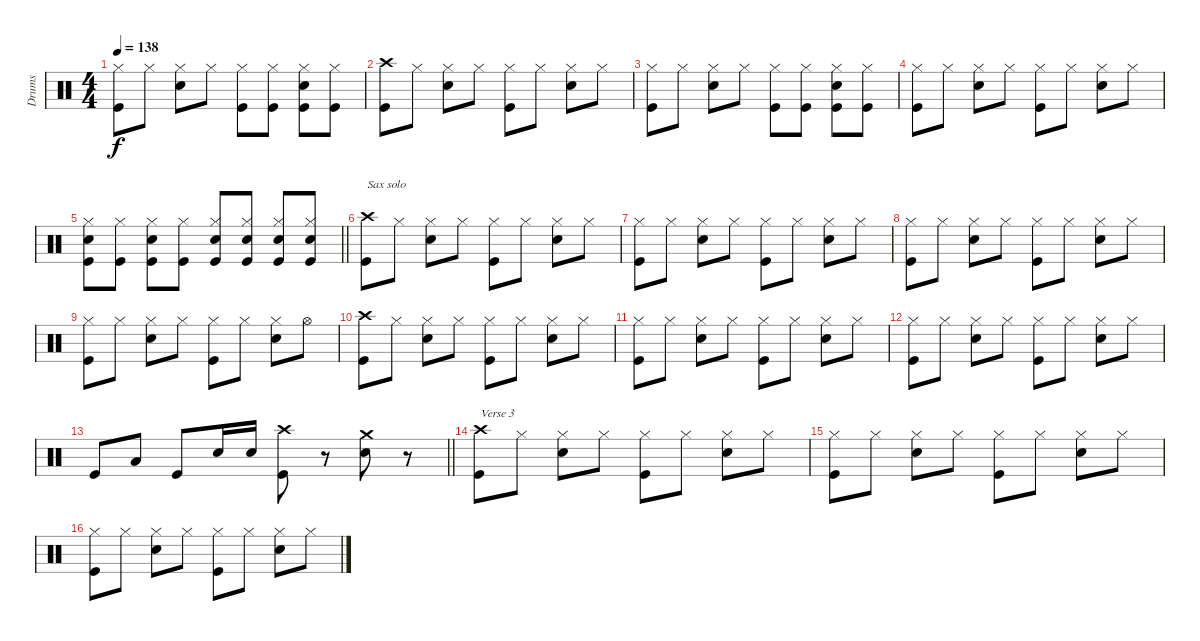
\track ("Drums" "Drums") {instrument percussion}
\staff {score}
\articulation defaults
\ts (4 4)
\tempo 138
\clef neutral
\ks c
("Kick (hit)" "Hi-Hat (closed)").8{dy f} "Hi-Hat (closed)".8 ("Electric Snare (hit)" "Hi-Hat (closed)").8 "Hi-Hat (closed)".8 ("Kick (hit)" "Hi-Hat (closed)").8 ("Kick (hit)" "Hi-Hat (closed)").8 ("Kick (hit)" "Electric Snare (hit)" "Hi-Hat (closed)").8 ("Kick (hit)" "Hi-Hat (closed)").8 |
("Kick (hit)" "Crash high (hit)").8 "Hi-Hat (closed)".8 ("Electric Snare (hit)" "Hi-Hat (closed)").8 "Hi-Hat (closed)".8 ("Kick (hit)" "Hi-Hat (closed)").8 "Hi-Hat (closed)".8 ("Electric Snare (hit)" "Hi-Hat (closed)").8 "Hi-Hat (closed)".8 |
("Kick (hit)" "Hi-Hat (closed)").8 "Hi-Hat (closed)".8 ("Electric Snare (hit)" "Hi-Hat (closed)").8 "Hi-Hat (closed)".8 ("Kick (hit)" "Hi-Hat (closed)").8 ("Kick (hit)" "Hi-Hat (closed)").8 ("Kick (hit)" "Electric Snare (hit)" "Hi-Hat (closed)").8 ("Kick (hit)" "Hi-Hat (closed)").8 |
("Kick (hit)" "Hi-Hat (closed)").8 "Hi-Hat (closed)".8 ("Electric Snare (hit)" "Hi-Hat (closed)").8 "Hi-Hat (closed)".8 ("Kick (hit)" "Hi-Hat (closed)").8 "Hi-Hat (closed)".8 ("Electric Snare (hit)" "Hi-Hat (closed)").8 "Hi-Hat (closed)".8 |
\barLineRight lightlight
("Kick (hit)" "Electric Snare (hit)" "Hi-Hat (closed)").8 ("Kick (hit)" "Hi-Hat (closed)").8 ("Kick (hit)" "Electric Snare (hit)" "Hi-Hat (closed)").8 ("Kick (hit)" "Hi-Hat (closed)").8 ("Kick (hit)" "Electric Snare (hit)" "Hi-Hat (closed)").8 ("Kick (hit)" "Electric Snare (hit)" "Hi-Hat (closed)").8 ("Kick (hit)" "Electric Snare (hit)" "Hi-Hat (closed)").8 ("Kick (hit)" "Electric Snare (hit)" "Hi-Hat (closed)").8 |
("Kick (hit)" "Crash high (hit)").8{txt "Sax solo"} "Hi-Hat (closed)".8 ("Electric Snare (hit)" "Hi-Hat (closed)").8 "Hi-Hat (closed)".8 ("Kick (hit)" "Hi-Hat (closed)").8 "Hi-Hat (closed)".8 ("Electric Snare (hit)" "Hi-Hat (closed)").8 "Hi-Hat (closed)".8 |
("Kick (hit)" "Hi-Hat (closed)").8 "Hi-Hat (closed)".8 ("Electric Snare (hit)" "Hi-Hat (closed)").8 "Hi-Hat (closed)".8 ("Kick (hit)" "Hi-Hat (closed)").8 "Hi-Hat (closed)".8 ("Electric Snare (hit)" "Hi-Hat (closed)").8 "Hi-Hat (closed)".8 |
("Kick (hit)" "Hi-Hat (closed)").8 "Hi-Hat (closed)".8 ("Electric Snare (hit)" "Hi-Hat (closed)").8 "Hi-Hat (closed)".8 ("Kick (hit)" "Hi-Hat (closed)").8 "Hi-Hat (closed)".8 ("Electric Snare (hit)" "Hi-Hat (closed)").8 "Hi-Hat (closed)".8 |
("Kick (hit)" "Hi-Hat (closed)").8 "Hi-Hat (closed)".8 ("Electric Snare (hit)" "Hi-Hat (closed)").8 "Hi-Hat (closed)".8 ("Kick (hit)" "Hi-Hat (closed)").8 "Hi-Hat (closed)".8 ("Electric Snare (hit)" "Hi-Hat (closed)").8 "Hi-Hat (open)".8 |
("Kick (hit)" "Crash high (hit)").8 "Hi-Hat (closed)".8 ("Electric Snare (hit)" "Hi-Hat (closed)").8 "Hi-Hat (closed)".8 ("Kick (hit)" "Hi-Hat (closed)").8 "Hi-Hat (closed)".8 ("Electric Snare (hit)" "Hi-Hat (closed)").8 "Hi-Hat (closed)".8 |
("Kick (hit)" "Hi-Hat (closed)").8 "Hi-Hat (closed)".8 ("Electric Snare (hit)" "Hi-Hat (closed)").8 "Hi-Hat (closed)".8 ("Kick (hit)" "Hi-Hat (closed)").8 "Hi-Hat (closed)".8 ("Electric Snare (hit)" "Hi-Hat (closed)").8 "Hi-Hat (closed)".8 |
("Kick (hit)" "Hi-Hat (closed)").8 "Hi-Hat (closed)".8 ("Electric Snare (hit)" "Hi-Hat (closed)").8 "Hi-Hat (closed)".8 ("Kick (hit)" "Hi-Hat (closed)").8 "Hi-Hat (closed)".8 ("Electric Snare (hit)" "Hi-Hat (closed)").8 "Hi-Hat (closed)".8 |
\barLineRight lightlight "Kick (hit)".8 "Low Tom (hit)".8 "Kick (hit)".8 "Electric Snare (hit)".16 "Electric Snare (hit)".16
("Kick (hit)" "Crash high (hit)").8 r.8 ("Electric Snare (hit)" "Crash medium (hit)").8 r.8 |
("Kick (hit)" "Crash high (hit)").8{txt "Verse 3"} "Hi-Hat (closed)".8 ("Electric Snare (hit)" "Hi-Hat (closed)").8 "Hi-Hat (closed)".8 ("Kick (hit)" "Hi-Hat (closed)").8 "Hi-Hat (closed)".8 ("Electric Snare (hit)" "Hi-Hat (closed)").8 "Hi-Hat (closed)".8 |
("Kick (hit)" "Hi-Hat (closed)").8 "Hi-Hat (closed)".8 ("Electric Snare (hit)" "Hi-Hat (closed)").8 "Hi-Hat (closed)".8 ("Kick (hit)" "Hi-Hat (closed)").8 "Hi-Hat (closed)".8 ("Electric Snare (hit)" "Hi-Hat (closed)").8 "Hi-Hat (closed)".8 |
("Kick (hit)" "Hi-Hat (closed)").8 "Hi-Hat (closed)".8 ("Electric Snare (hit)" "Hi-Hat (closed)").8 "Hi-Hat (closed)".8 ("Kick (hit)" "Hi-Hat (closed)").8 "Hi-Hat (closed)".8 ("Electric Snare (hit)" "Hi-Hat (closed)").8 "Hi-Hat (closed)".8
